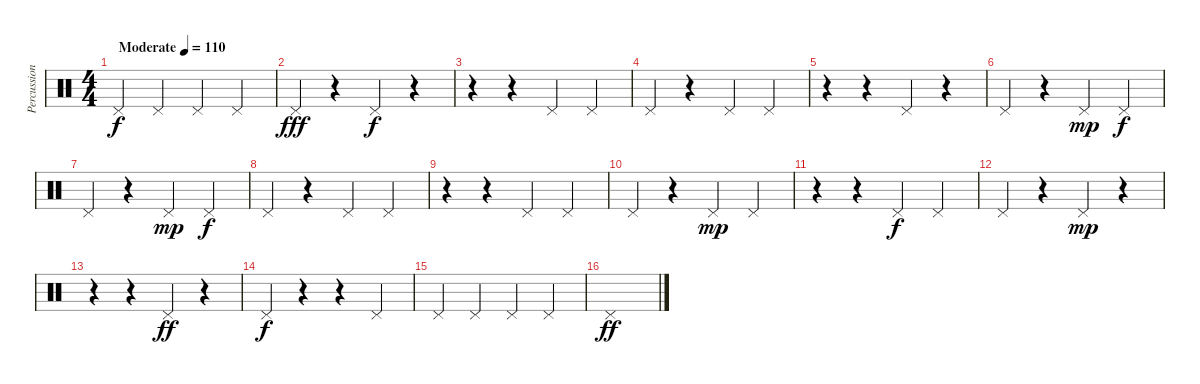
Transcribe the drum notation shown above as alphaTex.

\track ("Percussioni" "Percussion") {instrument percussion}
\staff {score}
\articulation defaults
\ts (4 4)
\tempo (110 "Moderate")
\clef neutral
\ks c "Pedal Hi-Hat (hit)".4{dy f} "Pedal Hi-Hat (hit)".4 "Pedal Hi-Hat (hit)".4 "Pedal Hi-Hat (hit)".4
|
"Pedal Hi-Hat (hit)".4{dy fff} r.4 "Pedal Hi-Hat (hit)".4{dy f} r.4 |
r.4 r.4 "Pedal Hi-Hat (hit)".4 "Pedal Hi-Hat (hit)".4 |
"Pedal Hi-Hat (hit)".4 r.4 "Pedal Hi-Hat (hit)".4 "Pedal Hi-Hat (hit)".4 |
r.4 r.4 "Pedal Hi-Hat (hit)".4 r.4 |
"Pedal Hi-Hat (hit)".4 r.4 "Pedal Hi-Hat (hit)".4{dy mp} "Pedal Hi-Hat (hit)".4{dy f} |
"Pedal Hi-Hat (hit)".4 r.4 "Pedal Hi-Hat (hit)".4{dy mp} "Pedal Hi-Hat (hit)".4{dy f} |
"Pedal Hi-Hat (hit)".4 r.4 "Pedal Hi-Hat (hit)".4 "Pedal Hi-Hat (hit)".4 |
r.4 r.4 "Pedal Hi-Hat (hit)".4 "Pedal Hi-Hat (hit)".4 |
"Pedal Hi-Hat (hit)".4 r.4 "Pedal Hi-Hat (hit)".4{dy mp} "Pedal Hi-Hat (hit)".4 |
r.4 r.4 "Pedal Hi-Hat (hit)".4{dy f} "Pedal Hi-Hat (hit)".4 |
"Pedal Hi-Hat (hit)".4 r.4 "Pedal Hi-Hat (hit)".4{dy mp} r.4 |
r.4 r.4 "Pedal Hi-Hat (hit)".4{dy ff} r.4 |
"Pedal Hi-Hat (hit)".4{dy f} r.4 r.4 "Pedal Hi-Hat (hit)".4 |
"Pedal Hi-Hat (hit)".4{txt ""} "Pedal Hi-Hat (hit)".4 "Pedal Hi-Hat (hit)".4 "Pedal Hi-Hat (hit)".4 |
"Pedal Hi-Hat (hit)".1{dy ff}
